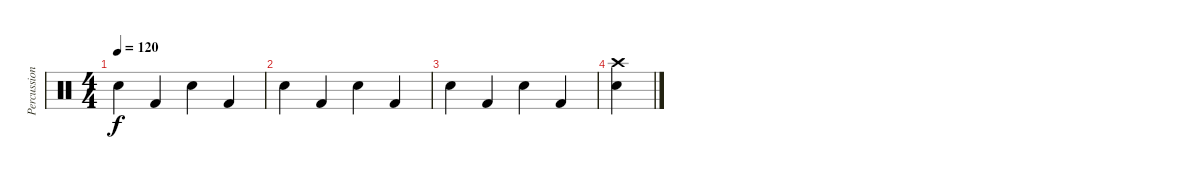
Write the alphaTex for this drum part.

\track ("Percussions" "Percussion") {instrument percussion}
\staff {score}
\articulation defaults
\ts (4 4)
\tempo 120
\clef neutral
\ks c "Snare (hit) 2".4{dy f} "Kick (hit) 2".4 "Snare (hit) 2".4 "Kick (hit) 2".4
|
"Snare (hit) 2".4 "Kick (hit) 2".4 "Snare (hit) 2".4 "Kick (hit) 2".4 |
"Snare (hit) 2".4 "Kick (hit) 2".4 "Snare (hit) 2".4 "Kick (hit) 2".4 |
("Crash high (hit)" "Snare (hit) 2").4
